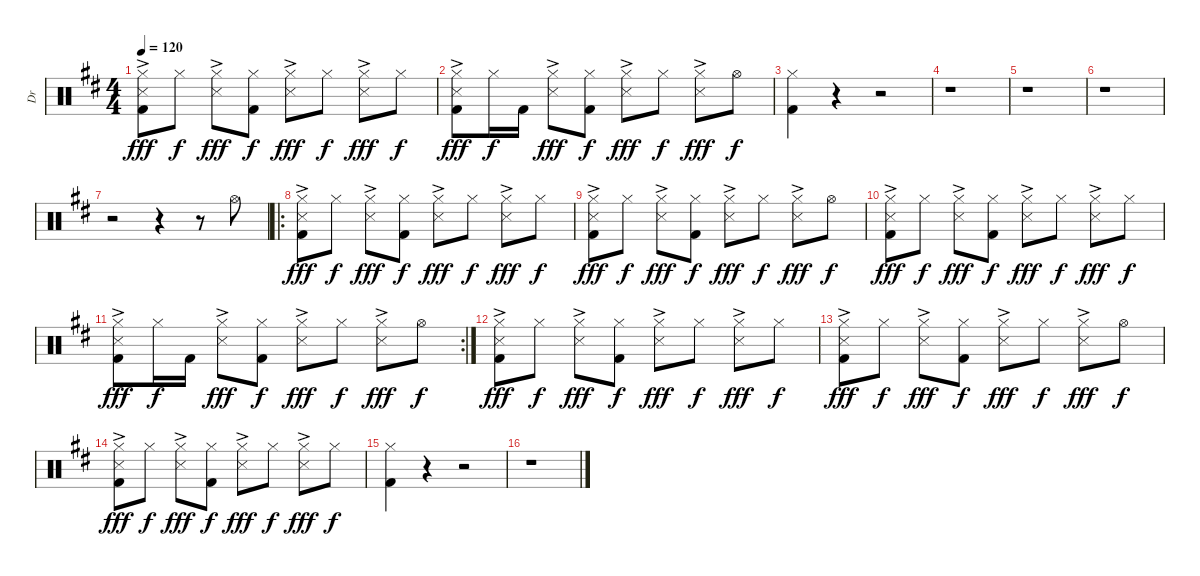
\track ("Dr" "Dr") {instrument percussion}
\staff {score}
\articulation defaults
\ts (4 4)
\tempo 120
\clef neutral
\ks d
("Hi-Hat (closed)" "Snare (side stick) 3"{ac} "Kick (hit) 2").8{dy fff} "Hi-Hat (closed)".8{dy f} ("Hi-Hat (closed)" "Snare (side stick) 3"{ac}).8{dy fff} ("Hi-Hat (closed)" "Kick (hit) 2").8{dy f} ("Hi-Hat (closed)" "Snare (side stick) 3"{ac}).8{dy fff} "Hi-Hat (closed)".8{dy f} ("Hi-Hat (closed)" "Snare (side stick) 3"{ac}).8{dy fff} "Hi-Hat (closed)".8{dy f} |
("Hi-Hat (closed)" "Snare (side stick) 3"{ac} "Kick (hit) 2").8{dy fff} "Hi-Hat (closed)".16{dy f} "Kick (hit) 2".16 ("Hi-Hat (closed)" "Snare (side stick) 3"{ac}).8{dy fff} ("Hi-Hat (closed)" "Kick (hit) 2").8{dy f} ("Hi-Hat (closed)" "Snare (side stick) 3"{ac}).8{dy fff} "Hi-Hat (closed)".8{dy f} ("Hi-Hat (closed)" "Snare (side stick) 3"{ac}).8{dy fff} "Hi-Hat (open)".8{dy f} |
("Hi-Hat (closed)" "Kick (hit) 2").4 r.4 r.2 |
r.1 |
r.1 |
r.1 |
r.2 r.4 r.8 "Hi-Hat (open)".8 |
\ro
("Hi-Hat (closed)" "Snare (side stick) 3"{ac} "Kick (hit) 2").8{dy fff} "Hi-Hat (closed)".8{dy f} ("Hi-Hat (closed)" "Snare (side stick) 3"{ac}).8{dy fff} ("Hi-Hat (closed)" "Kick (hit) 2").8{dy f} ("Hi-Hat (closed)" "Snare (side stick) 3"{ac}).8{dy fff} "Hi-Hat (closed)".8{dy f} ("Hi-Hat (closed)" "Snare (side stick) 3"{ac}).8{dy fff} "Hi-Hat (closed)".8{dy f} |
("Hi-Hat (closed)" "Snare (side stick) 3"{ac} "Kick (hit) 2").8{dy fff} "Hi-Hat (closed)".8{dy f} ("Hi-Hat (closed)" "Snare (side stick) 3"{ac}).8{dy fff} ("Hi-Hat (closed)" "Kick (hit) 2").8{dy f} ("Hi-Hat (closed)" "Snare (side stick) 3"{ac}).8{dy fff} "Hi-Hat (closed)".8{dy f} ("Hi-Hat (closed)" "Snare (side stick) 3"{ac}).8{dy fff} "Hi-Hat (open)".8{dy f} |
("Hi-Hat (closed)" "Snare (side stick) 3"{ac} "Kick (hit) 2").8{dy fff} "Hi-Hat (closed)".8{dy f} ("Hi-Hat (closed)" "Snare (side stick) 3"{ac}).8{dy fff} ("Hi-Hat (closed)" "Kick (hit) 2").8{dy f} ("Hi-Hat (closed)" "Snare (side stick) 3"{ac}).8{dy fff} "Hi-Hat (closed)".8{dy f} ("Hi-Hat (closed)" "Snare (side stick) 3"{ac}).8{dy fff} "Hi-Hat (closed)".8{dy f} |
\rc 2
("Hi-Hat (closed)" "Snare (side stick) 3"{ac} "Kick (hit) 2").8{dy fff} "Hi-Hat (closed)".16{dy f} "Kick (hit) 2".16 ("Hi-Hat (closed)" "Snare (side stick) 3"{ac}).8{dy fff} ("Hi-Hat (closed)" "Kick (hit) 2").8{dy f} ("Hi-Hat (closed)" "Snare (side stick) 3"{ac}).8{dy fff} "Hi-Hat (closed)".8{dy f} ("Hi-Hat (closed)" "Snare (side stick) 3"{ac}).8{dy fff} "Hi-Hat (open)".8{dy f} |
("Hi-Hat (closed)" "Snare (side stick) 3"{ac} "Kick (hit) 2").8{dy fff} "Hi-Hat (closed)".8{dy f} ("Hi-Hat (closed)" "Snare (side stick) 3"{ac}).8{dy fff} ("Hi-Hat (closed)" "Kick (hit) 2").8{dy f} ("Hi-Hat (closed)" "Snare (side stick) 3"{ac}).8{dy fff} "Hi-Hat (closed)".8{dy f} ("Hi-Hat (closed)" "Snare (side stick) 3"{ac}).8{dy fff} "Hi-Hat (closed)".8{dy f} |
("Hi-Hat (closed)" "Snare (side stick) 3"{ac} "Kick (hit) 2").8{dy fff} "Hi-Hat (closed)".8{dy f} ("Hi-Hat (closed)" "Snare (side stick) 3"{ac}).8{dy fff} ("Hi-Hat (closed)" "Kick (hit) 2").8{dy f} ("Hi-Hat (closed)" "Snare (side stick) 3"{ac}).8{dy fff} "Hi-Hat (closed)".8{dy f} ("Hi-Hat (closed)" "Snare (side stick) 3"{ac}).8{dy fff} "Hi-Hat (open)".8{dy f} |
("Hi-Hat (closed)" "Snare (side stick) 3"{ac} "Kick (hit) 2").8{dy fff} "Hi-Hat (closed)".8{dy f} ("Hi-Hat (closed)" "Snare (side stick) 3"{ac}).8{dy fff} ("Hi-Hat (closed)" "Kick (hit) 2").8{dy f} ("Hi-Hat (closed)" "Snare (side stick) 3"{ac}).8{dy fff} "Hi-Hat (closed)".8{dy f} ("Hi-Hat (closed)" "Snare (side stick) 3"{ac}).8{dy fff} "Hi-Hat (closed)".8{dy f} |
("Hi-Hat (closed)" "Kick (hit) 2").4 r.4 r.2 |
r.1
